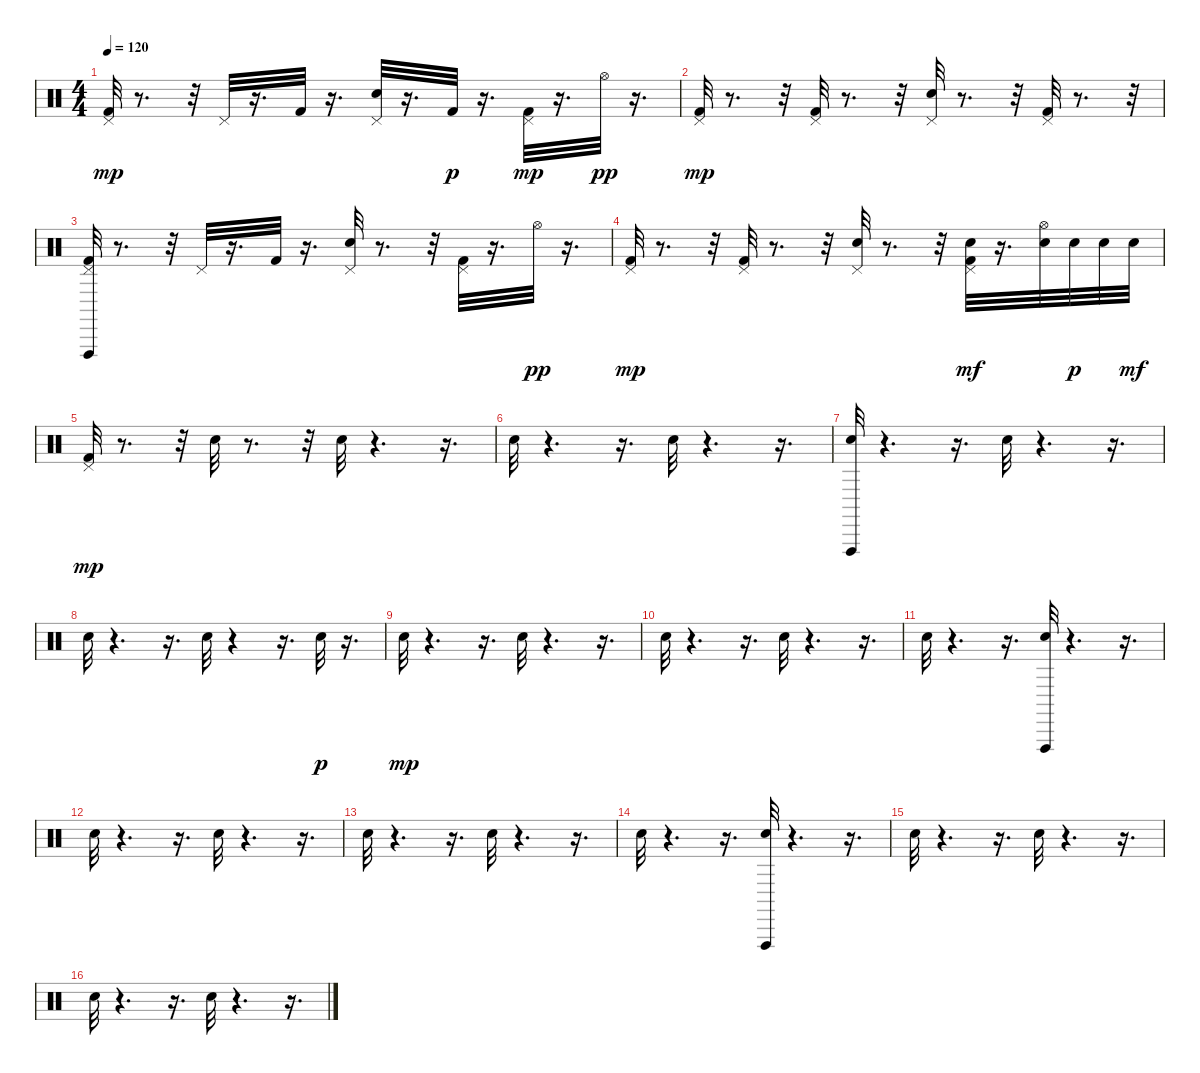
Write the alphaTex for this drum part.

\track "" {instrument percussion}
\staff {score}
\articulation defaults
\ts (4 4)
\tempo 120
\clef neutral
\ks c
("Pedal Hi-Hat (hit)" "Kick (hit) 2").32{dy mp} r.8{d} r.32 "Pedal Hi-Hat (hit)".32 r.16{d} "Kick (hit) 2".32 r.16{d} ("Pedal Hi-Hat (hit)" "Snare (hit) 2").32 r.16{d} "Kick (hit) 2".32{dy p} r.16{d} ("Pedal Hi-Hat (hit)" "Kick (hit) 2").32{dy mp} r.16{d} "Hi-Hat (open)".32{dy pp} r.16{d} |
("Pedal Hi-Hat (hit)" "Kick (hit) 2").32{dy mp} r.8{d} r.32 ("Pedal Hi-Hat (hit)" "Kick (hit) 2").32 r.8{d} r.32 ("Pedal Hi-Hat (hit)" "Snare (hit) 2").32 r.8{d} r.32 ("Pedal Hi-Hat (hit)" "Kick (hit) 2").32 r.8{d} r.32 |
("Vibraslap (hit)" "Pedal Hi-Hat (hit)" "Kick (hit) 2").32 r.8{d} r.32 "Pedal Hi-Hat (hit)".32 r.16{d} "Kick (hit) 2".32 r.16{d} ("Pedal Hi-Hat (hit)" "Snare (hit) 2").32 r.8{d} r.32 ("Pedal Hi-Hat (hit)" "Kick (hit) 2").32 r.16{d} "Hi-Hat (open)".32{dy pp} r.16{d} |
("Pedal Hi-Hat (hit)" "Kick (hit) 2").32{dy mp} r.8{d} r.32 ("Pedal Hi-Hat (hit)" "Kick (hit) 2").32 r.8{d} r.32 ("Pedal Hi-Hat (hit)" "Snare (hit) 2").32 r.8{d} r.32 ("Pedal Hi-Hat (hit)" "Kick (hit) 2" "Snare (hit) 2").32{dy mf} r.16{d} ("Snare (hit) 2" "Hi-Hat (open)").32 "Snare (hit) 2".32{dy p} "Snare (hit) 2".32 "Snare (hit) 2".32{dy mf} |
("Pedal Hi-Hat (hit)" "Kick (hit) 2").32{dy mp} r.8{d} r.32 "Hand Clap (hit)".32 r.8{d} r.32 "Hand Clap (hit)".32 r.4{d} r.16{d} |
"Hand Clap (hit)".32 r.4{d} r.16{d} "Hand Clap (hit)".32 r.4{d} r.16{d} |
("Vibraslap (hit)" "Hand Clap (hit)").32 r.4{d} r.16{d} "Hand Clap (hit)".32 r.4{d} r.16{d} |
"Hand Clap (hit)".32 r.4{d} r.16{d} "Hand Clap (hit)".32 r.4 r.16{d} "Hand Clap (hit)".32{dy p} r.16{d} |
"Hand Clap (hit)".32{dy mp} r.4{d} r.16{d} "Hand Clap (hit)".32 r.4{d} r.16{d} |
"Hand Clap (hit)".32 r.4{d} r.16{d} "Hand Clap (hit)".32 r.4{d} r.16{d} |
"Hand Clap (hit)".32 r.4{d} r.16{d} ("Hand Clap (hit)" "Vibraslap (hit)").32 r.4{d} r.16{d} |
"Hand Clap (hit)".32 r.4{d} r.16{d} "Hand Clap (hit)".32 r.4{d} r.16{d} |
"Hand Clap (hit)".32 r.4{d} r.16{d} "Hand Clap (hit)".32 r.4{d} r.16{d} |
"Hand Clap (hit)".32 r.4{d} r.16{d} ("Hand Clap (hit)" "Vibraslap (hit)").32 r.4{d} r.16{d} |
"Hand Clap (hit)".32 r.4{d} r.16{d} "Hand Clap (hit)".32 r.4{d} r.16{d} |
"Hand Clap (hit)".32 r.4{d} r.16{d} "Hand Clap (hit)".32 r.4{d} r.16{d}
